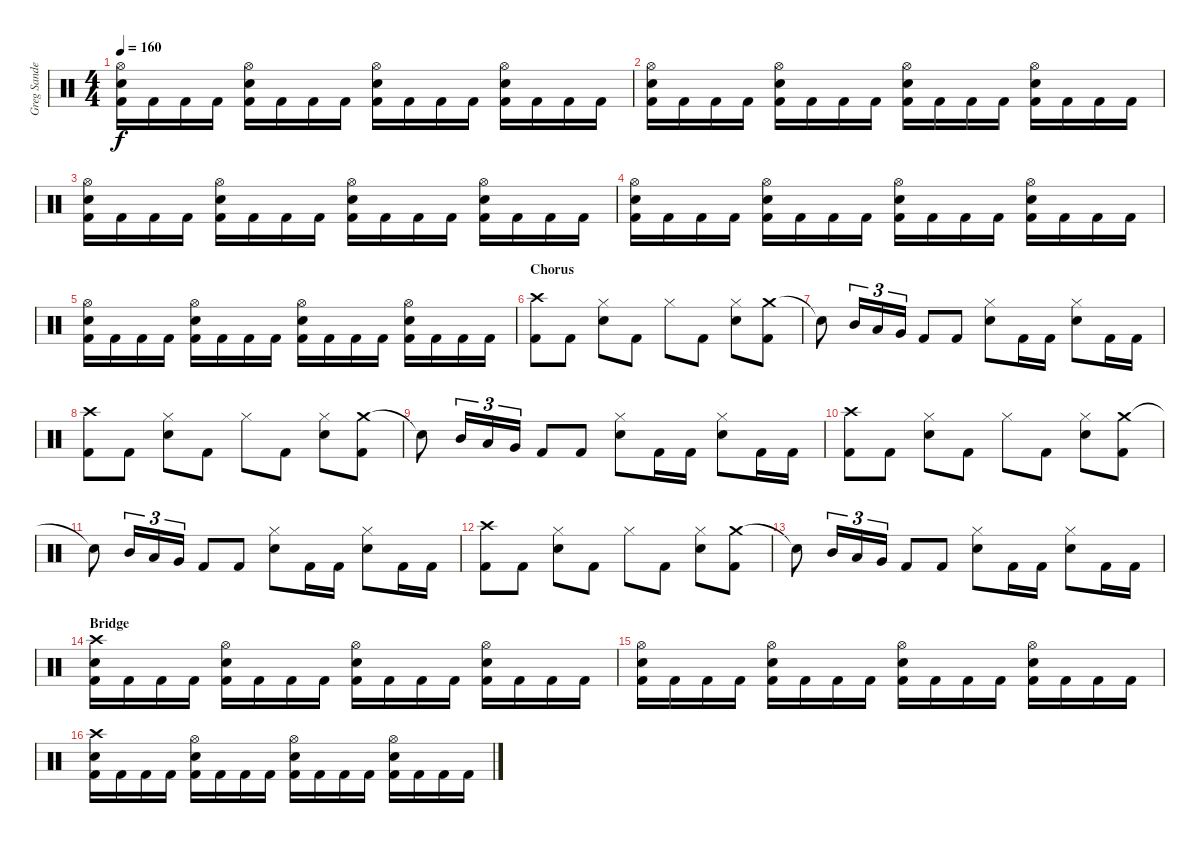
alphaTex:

\track ("Greg Sanderson" "Greg Sande") {instrument percussion}
\staff {score}
\articulation defaults
\ts (4 4)
\tempo 160
\clef neutral
\ks c
("Hi-Hat (open)" "Snare (hit) 2" "Kick (hit) 2").16{dy f} "Kick (hit) 2".16 "Kick (hit) 2".16 "Kick (hit) 2".16 ("Hi-Hat (open)" "Snare (hit) 2" "Kick (hit) 2").16 "Kick (hit) 2".16 "Kick (hit) 2".16 "Kick (hit) 2".16 ("Hi-Hat (open)" "Snare (hit) 2" "Kick (hit) 2").16 "Kick (hit) 2".16 "Kick (hit) 2".16 "Kick (hit) 2".16 ("Hi-Hat (open)" "Snare (hit) 2" "Kick (hit) 2").16 "Kick (hit) 2".16 "Kick (hit) 2".16 "Kick (hit) 2".16 |
("Hi-Hat (open)" "Snare (hit) 2" "Kick (hit) 2").16 "Kick (hit) 2".16 "Kick (hit) 2".16 "Kick (hit) 2".16 ("Hi-Hat (open)" "Snare (hit) 2" "Kick (hit) 2").16 "Kick (hit) 2".16 "Kick (hit) 2".16 "Kick (hit) 2".16 ("Hi-Hat (open)" "Snare (hit) 2" "Kick (hit) 2").16 "Kick (hit) 2".16 "Kick (hit) 2".16 "Kick (hit) 2".16 ("Hi-Hat (open)" "Snare (hit) 2" "Kick (hit) 2").16 "Kick (hit) 2".16 "Kick (hit) 2".16 "Kick (hit) 2".16 |
("Hi-Hat (open)" "Snare (hit) 2" "Kick (hit) 2").16 "Kick (hit) 2".16 "Kick (hit) 2".16 "Kick (hit) 2".16 ("Hi-Hat (open)" "Snare (hit) 2" "Kick (hit) 2").16 "Kick (hit) 2".16 "Kick (hit) 2".16 "Kick (hit) 2".16 ("Hi-Hat (open)" "Snare (hit) 2" "Kick (hit) 2").16 "Kick (hit) 2".16 "Kick (hit) 2".16 "Kick (hit) 2".16 ("Hi-Hat (open)" "Snare (hit) 2" "Kick (hit) 2").16 "Kick (hit) 2".16 "Kick (hit) 2".16 "Kick (hit) 2".16 |
("Hi-Hat (open)" "Snare (hit) 2" "Kick (hit) 2").16 "Kick (hit) 2".16 "Kick (hit) 2".16 "Kick (hit) 2".16 ("Hi-Hat (open)" "Snare (hit) 2" "Kick (hit) 2").16 "Kick (hit) 2".16 "Kick (hit) 2".16 "Kick (hit) 2".16 ("Hi-Hat (open)" "Snare (hit) 2" "Kick (hit) 2").16 "Kick (hit) 2".16 "Kick (hit) 2".16 "Kick (hit) 2".16 ("Hi-Hat (open)" "Snare (hit) 2" "Kick (hit) 2").16 "Kick (hit) 2".16 "Kick (hit) 2".16 "Kick (hit) 2".16 |
("Hi-Hat (open)" "Snare (hit) 2" "Kick (hit) 2").16 "Kick (hit) 2".16 "Kick (hit) 2".16 "Kick (hit) 2".16 ("Hi-Hat (open)" "Snare (hit) 2" "Kick (hit) 2").16 "Kick (hit) 2".16 "Kick (hit) 2".16 "Kick (hit) 2".16 ("Hi-Hat (open)" "Snare (hit) 2" "Kick (hit) 2").16 "Kick (hit) 2".16 "Kick (hit) 2".16 "Kick (hit) 2".16 ("Hi-Hat (open)" "Snare (hit) 2" "Kick (hit) 2").16 "Kick (hit) 2".16 "Kick (hit) 2".16 "Kick (hit) 2".16 |
\section ("" "Chorus")
("Crash high (hit)" "Kick (hit) 2").8 "Kick (hit) 2".8 ("Hi-Hat (closed)" "Snare (hit) 2").8 "Kick (hit) 2".8 "Hi-Hat (closed)".8 "Kick (hit) 2".8 ("Hi-Hat (closed)" "Snare (hit) 2").8 ("Crash medium (hit)" "Kick (hit) 2").8 |
"Snare (hit)"{t}.8 "Mid Tom (hit)".16{tu (3 2)} "Low Tom (hit)".16{tu (3 2)} "Very Low Tom (hit)".16{tu (3 2)} "Kick (hit) 2".8 "Kick (hit) 2".8 ("Hi-Hat (closed)" "Snare (hit) 2").8 "Kick (hit) 2".16 "Kick (hit) 2".16 ("Hi-Hat (closed)" "Snare (hit) 2").8 "Kick (hit) 2".16 "Kick (hit) 2".16 |
("Crash high (hit)" "Kick (hit) 2").8 "Kick (hit) 2".8 ("Hi-Hat (closed)" "Snare (hit) 2").8 "Kick (hit) 2".8 "Hi-Hat (closed)".8 "Kick (hit) 2".8 ("Hi-Hat (closed)" "Snare (hit) 2").8 ("Crash medium (hit)" "Kick (hit) 2").8 |
"Snare (hit)"{t}.8 "Mid Tom (hit)".16{tu (3 2)} "Low Tom (hit)".16{tu (3 2)} "Very Low Tom (hit)".16{tu (3 2)} "Kick (hit) 2".8 "Kick (hit) 2".8 ("Hi-Hat (closed)" "Snare (hit) 2").8 "Kick (hit) 2".16 "Kick (hit) 2".16 ("Hi-Hat (closed)" "Snare (hit) 2").8 "Kick (hit) 2".16 "Kick (hit) 2".16 |
("Crash high (hit)" "Kick (hit) 2").8 "Kick (hit) 2".8 ("Hi-Hat (closed)" "Snare (hit) 2").8 "Kick (hit) 2".8 "Hi-Hat (closed)".8 "Kick (hit) 2".8 ("Hi-Hat (closed)" "Snare (hit) 2").8 ("Crash medium (hit)" "Kick (hit) 2").8 |
"Snare (hit)"{t}.8 "Mid Tom (hit)".16{tu (3 2)} "Low Tom (hit)".16{tu (3 2)} "Very Low Tom (hit)".16{tu (3 2)} "Kick (hit) 2".8 "Kick (hit) 2".8 ("Hi-Hat (closed)" "Snare (hit) 2").8 "Kick (hit) 2".16 "Kick (hit) 2".16 ("Hi-Hat (closed)" "Snare (hit) 2").8 "Kick (hit) 2".16 "Kick (hit) 2".16 |
("Crash high (hit)" "Kick (hit) 2").8 "Kick (hit) 2".8 ("Hi-Hat (closed)" "Snare (hit) 2").8 "Kick (hit) 2".8 "Hi-Hat (closed)".8 "Kick (hit) 2".8 ("Hi-Hat (closed)" "Snare (hit) 2").8 ("Crash medium (hit)" "Kick (hit) 2").8 |
"Snare (hit)"{t}.8 "Mid Tom (hit)".16{tu (3 2)} "Low Tom (hit)".16{tu (3 2)} "Very Low Tom (hit)".16{tu (3 2)} "Kick (hit) 2".8 "Kick (hit) 2".8 ("Hi-Hat (closed)" "Snare (hit) 2").8 "Kick (hit) 2".16 "Kick (hit) 2".16 ("Hi-Hat (closed)" "Snare (hit) 2").8 "Kick (hit) 2".16 "Kick (hit) 2".16 |
\section ("" "Bridge")
("Crash high (hit)" "Snare (hit) 2" "Kick (hit) 2").16 "Kick (hit) 2".16 "Kick (hit) 2".16 "Kick (hit) 2".16 ("Hi-Hat (open)" "Snare (hit) 2" "Kick (hit) 2").16 "Kick (hit) 2".16 "Kick (hit) 2".16 "Kick (hit) 2".16 ("Hi-Hat (open)" "Snare (hit) 2" "Kick (hit) 2").16 "Kick (hit) 2".16 "Kick (hit) 2".16 "Kick (hit) 2".16 ("Hi-Hat (open)" "Snare (hit) 2" "Kick (hit) 2").16 "Kick (hit) 2".16 "Kick (hit) 2".16 "Kick (hit) 2".16 |
("Hi-Hat (open)" "Snare (hit) 2" "Kick (hit) 2").16 "Kick (hit) 2".16 "Kick (hit) 2".16 "Kick (hit) 2".16 ("Hi-Hat (open)" "Snare (hit) 2" "Kick (hit) 2").16 "Kick (hit) 2".16 "Kick (hit) 2".16 "Kick (hit) 2".16 ("Hi-Hat (open)" "Snare (hit) 2" "Kick (hit) 2").16 "Kick (hit) 2".16 "Kick (hit) 2".16 "Kick (hit) 2".16 ("Hi-Hat (open)" "Snare (hit) 2" "Kick (hit) 2").16 "Kick (hit) 2".16 "Kick (hit) 2".16 "Kick (hit) 2".16 |
("Crash high (hit)" "Snare (hit) 2" "Kick (hit) 2").16 "Kick (hit) 2".16 "Kick (hit) 2".16 "Kick (hit) 2".16 ("Hi-Hat (open)" "Snare (hit) 2" "Kick (hit) 2").16 "Kick (hit) 2".16 "Kick (hit) 2".16 "Kick (hit) 2".16 ("Hi-Hat (open)" "Snare (hit) 2" "Kick (hit) 2").16 "Kick (hit) 2".16 "Kick (hit) 2".16 "Kick (hit) 2".16 ("Hi-Hat (open)" "Snare (hit) 2" "Kick (hit) 2").16 "Kick (hit) 2".16 "Kick (hit) 2".16 "Kick (hit) 2".16
